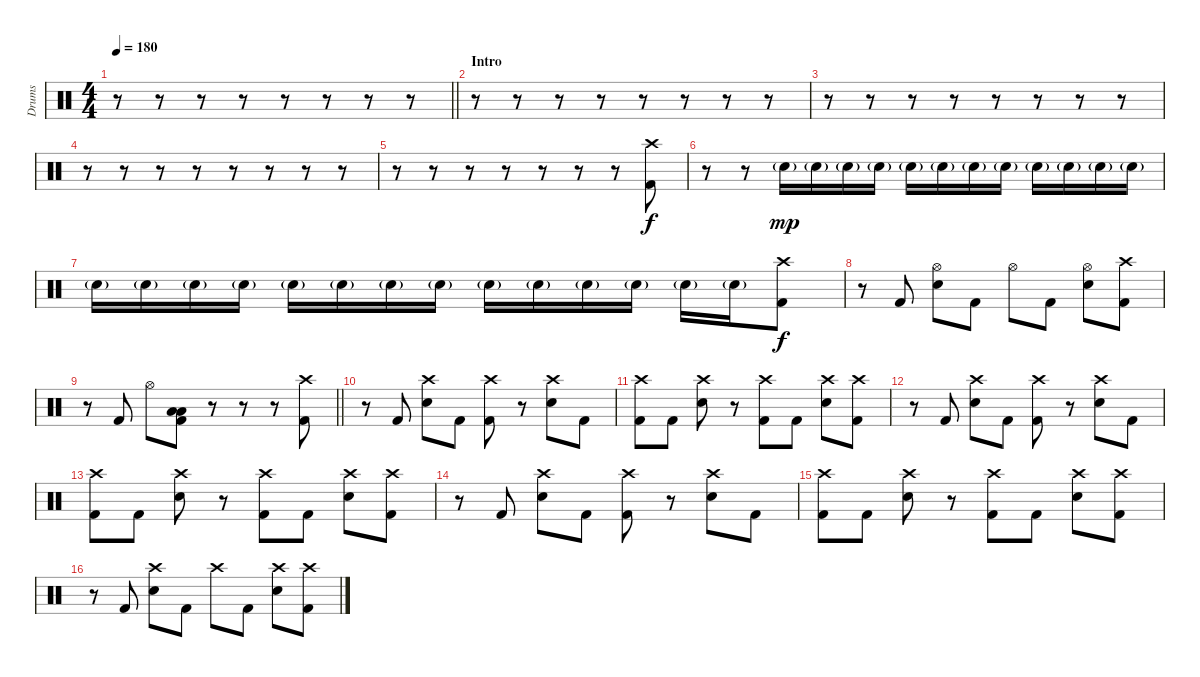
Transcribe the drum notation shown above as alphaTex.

\track ("Drums" "Drums") {instrument percussion}
\staff {score}
\articulation defaults
\ts (4 4)
\tempo 180
\clef neutral
\barLineRight lightlight
\ks c
r.8{dy f} r.8 r.8 r.8 r.8 r.8 r.8 r.8 |
\section ("" "Intro")
r.8 r.8 r.8 r.8 r.8 r.8 r.8 r.8 |
r.8 r.8 r.8 r.8 r.8 r.8 r.8 r.8 |
r.8 r.8 r.8 r.8 r.8 r.8 r.8 r.8 |
r.8 r.8 r.8 r.8 r.8 r.8 r.8 ("Crash high (hit)" "Kick (hit) 2").8 |
r.8 r.8 "Snare (hit) 2"{g}.16{dy mp} "Snare (hit) 2"{g}.16 "Snare (hit) 2"{g}.16 "Snare (hit) 2"{g}.16 "Snare (hit) 2"{g}.16 "Snare (hit) 2"{g}.16 "Snare (hit) 2"{g}.16 "Snare (hit) 2"{g}.16 "Snare (hit) 2"{g}.16 "Snare (hit) 2"{g}.16 "Snare (hit) 2"{g}.16 "Snare (hit) 2"{g}.16 |
"Snare (hit) 2"{g}.16 "Snare (hit) 2"{g}.16 "Snare (hit) 2"{g}.16 "Snare (hit) 2"{g}.16 "Snare (hit) 2"{g}.16 "Snare (hit) 2"{g}.16 "Snare (hit) 2"{g}.16 "Snare (hit) 2"{g}.16 "Snare (hit) 2"{g}.16 "Snare (hit) 2"{g}.16 "Snare (hit) 2"{g}.16 "Snare (hit) 2"{g}.16 "Snare (hit) 2"{g}.16 "Snare (hit) 2"{g}.16 ("Crash high (hit)" "Kick (hit) 2").8{dy f} |
r.8 "Kick (hit) 2".8 ("Hi-Hat (open)" "Snare (hit) 2").8 "Kick (hit) 2".8 "Hi-Hat (open)".8 "Kick (hit) 2".8 ("Hi-Hat (open)" "Snare (hit) 2").8 ("Crash high (hit)" "Kick (hit) 2").8 |
\barLineRight lightlight
r.8 "Kick (hit) 2".8 "Hi-Hat (open)".8 ("Low Tom (hit)" "Low Tom (hit)" "Kick (hit) 2").8 r.8 r.8 r.8 ("Crash high (hit)" "Kick (hit) 2").8 |
r.8 "Kick (hit) 2".8 ("Crash high (hit)" "Snare (hit) 2").8 "Kick (hit) 2".8 ("Crash high (hit)" "Kick (hit) 2").8 r.8 ("Crash high (hit)" "Snare (hit) 2").8 "Kick (hit) 2".8 |
("Crash high (hit)" "Kick (hit) 2").8 "Kick (hit) 2".8 ("Crash high (hit)" "Snare (hit) 2").8 r.8 ("Crash high (hit)" "Kick (hit) 2").8 "Kick (hit) 2".8 ("Crash high (hit)" "Snare (hit) 2").8 ("Crash high (hit)" "Kick (hit) 2").8 |
r.8 "Kick (hit) 2".8 ("Crash high (hit)" "Snare (hit) 2").8 "Kick (hit) 2".8 ("Crash high (hit)" "Kick (hit) 2").8 r.8 ("Crash high (hit)" "Snare (hit) 2").8 "Kick (hit) 2".8 |
("Crash high (hit)" "Kick (hit) 2").8 "Kick (hit) 2".8 ("Crash high (hit)" "Snare (hit) 2").8 r.8 ("Crash high (hit)" "Kick (hit) 2").8 "Kick (hit) 2".8 ("Crash high (hit)" "Snare (hit) 2").8 ("Crash high (hit)" "Kick (hit) 2").8 |
r.8 "Kick (hit) 2".8 ("Crash high (hit)" "Snare (hit) 2").8 "Kick (hit) 2".8 ("Crash high (hit)" "Kick (hit) 2").8 r.8 ("Crash high (hit)" "Snare (hit) 2").8 "Kick (hit) 2".8 |
("Crash high (hit)" "Kick (hit) 2").8 "Kick (hit) 2".8 ("Crash high (hit)" "Snare (hit) 2").8 r.8 ("Crash high (hit)" "Kick (hit) 2").8 "Kick (hit) 2".8 ("Crash high (hit)" "Snare (hit) 2").8 ("Crash high (hit)" "Kick (hit) 2").8 |
r.8 "Kick (hit) 2".8 ("Crash high (hit)" "Snare (hit) 2").8 "Kick (hit) 2".8 "Crash high (hit)".8 "Kick (hit) 2".8 ("Crash high (hit)" "Snare (hit) 2").8 ("Crash high (hit)" "Kick (hit) 2").8
